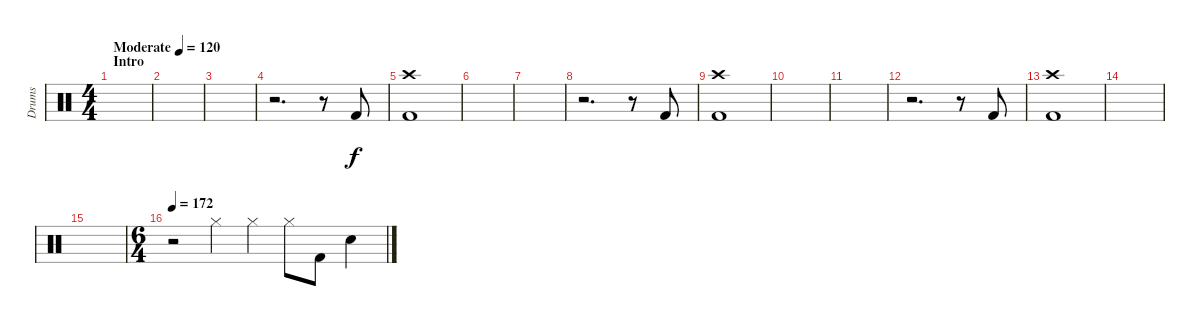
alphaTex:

\track ("Drums" "Drums") {instrument percussion}
\staff {score}
\articulation defaults
\ts (4 4)
\section ("" "Intro")
\tempo (120 "Moderate")
\clef neutral
\ks c
|
|
|
r.2{d} r.8 "Kick (hit) 2".8 |
("Crash high (hit)" "Kick (hit) 2").1 |
|
|
r.2{d} r.8 "Kick (hit) 2".8 |
("Crash high (hit)" "Kick (hit) 2").1 |
|
|
r.2{d} r.8 "Kick (hit) 2".8 |
("Crash high (hit)" "Kick (hit) 2").1 |
|
|
\ts (6 4)
\tempo 172
r.2 "Hi-Hat (closed)".4 "Hi-Hat (closed)".4 "Hi-Hat (closed)".8 "Kick (hit) 2".8 "Electric Snare (hit)".4
